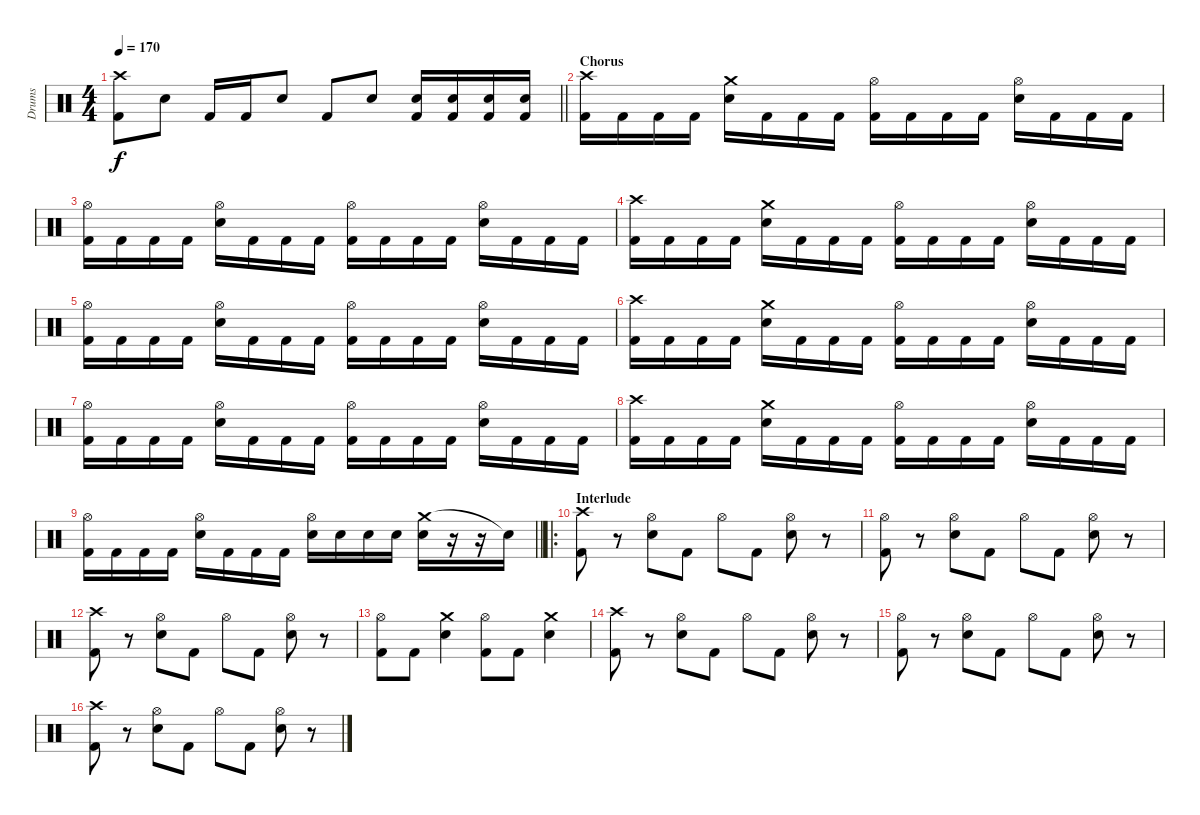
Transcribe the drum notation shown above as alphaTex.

\track ("Drums" "Drums") {instrument percussion}
\staff {score}
\articulation defaults
\ts (4 4)
\tempo 170
\clef neutral
\barLineRight lightlight
\ks c
("Crash high (hit)" "Kick (hit) 2").8{dy f} "Snare (hit) 2".8 "Kick (hit) 2".16 "Kick (hit) 2".16 "Snare (hit) 2".8 "Kick (hit) 2".8 "Snare (hit) 2".8 ("Snare (hit) 2" "Kick (hit) 2").16 ("Snare (hit) 2" "Kick (hit) 2").16 ("Snare (hit) 2" "Kick (hit) 2").16 ("Snare (hit) 2" "Kick (hit) 2").16 |
\section ("" "Chorus")
("Crash high (hit)" "Kick (hit) 2").16 "Kick (hit) 2".16 "Kick (hit) 2".16 "Kick (hit) 2".16 ("Crash medium (hit)" "Snare (hit) 2").16 "Kick (hit) 2".16 "Kick (hit) 2".16 "Kick (hit) 2".16 ("Hi-Hat (open)" "Kick (hit) 2").16 "Kick (hit) 2".16 "Kick (hit) 2".16 "Kick (hit) 2".16 ("Hi-Hat (open)" "Snare (hit) 2").16 "Kick (hit) 2".16 "Kick (hit) 2".16 "Kick (hit) 2".16 |
("Hi-Hat (open)" "Kick (hit) 2").16 "Kick (hit) 2".16 "Kick (hit) 2".16 "Kick (hit) 2".16 ("Hi-Hat (open)" "Snare (hit) 2").16 "Kick (hit) 2".16 "Kick (hit) 2".16 "Kick (hit) 2".16 ("Hi-Hat (open)" "Kick (hit) 2").16 "Kick (hit) 2".16 "Kick (hit) 2".16 "Kick (hit) 2".16 ("Hi-Hat (open)" "Snare (hit) 2").16 "Kick (hit) 2".16 "Kick (hit) 2".16 "Kick (hit) 2".16 |
("Crash high (hit)" "Kick (hit) 2").16 "Kick (hit) 2".16 "Kick (hit) 2".16 "Kick (hit) 2".16 ("Crash medium (hit)" "Snare (hit) 2").16 "Kick (hit) 2".16 "Kick (hit) 2".16 "Kick (hit) 2".16 ("Hi-Hat (open)" "Kick (hit) 2").16 "Kick (hit) 2".16 "Kick (hit) 2".16 "Kick (hit) 2".16 ("Hi-Hat (open)" "Snare (hit) 2").16 "Kick (hit) 2".16 "Kick (hit) 2".16 "Kick (hit) 2".16 |
("Hi-Hat (open)" "Kick (hit) 2").16 "Kick (hit) 2".16 "Kick (hit) 2".16 "Kick (hit) 2".16 ("Hi-Hat (open)" "Snare (hit) 2").16 "Kick (hit) 2".16 "Kick (hit) 2".16 "Kick (hit) 2".16 ("Hi-Hat (open)" "Kick (hit) 2").16 "Kick (hit) 2".16 "Kick (hit) 2".16 "Kick (hit) 2".16 ("Hi-Hat (open)" "Snare (hit) 2").16 "Kick (hit) 2".16 "Kick (hit) 2".16 "Kick (hit) 2".16 |
("Crash high (hit)" "Kick (hit) 2").16 "Kick (hit) 2".16 "Kick (hit) 2".16 "Kick (hit) 2".16 ("Crash medium (hit)" "Snare (hit) 2").16 "Kick (hit) 2".16 "Kick (hit) 2".16 "Kick (hit) 2".16 ("Hi-Hat (open)" "Kick (hit) 2").16 "Kick (hit) 2".16 "Kick (hit) 2".16 "Kick (hit) 2".16 ("Hi-Hat (open)" "Snare (hit) 2").16 "Kick (hit) 2".16 "Kick (hit) 2".16 "Kick (hit) 2".16 |
("Hi-Hat (open)" "Kick (hit) 2").16 "Kick (hit) 2".16 "Kick (hit) 2".16 "Kick (hit) 2".16 ("Hi-Hat (open)" "Snare (hit) 2").16 "Kick (hit) 2".16 "Kick (hit) 2".16 "Kick (hit) 2".16 ("Hi-Hat (open)" "Kick (hit) 2").16 "Kick (hit) 2".16 "Kick (hit) 2".16 "Kick (hit) 2".16 ("Hi-Hat (open)" "Snare (hit) 2").16 "Kick (hit) 2".16 "Kick (hit) 2".16 "Kick (hit) 2".16 |
("Crash high (hit)" "Kick (hit) 2").16 "Kick (hit) 2".16 "Kick (hit) 2".16 "Kick (hit) 2".16 ("Crash medium (hit)" "Snare (hit) 2").16 "Kick (hit) 2".16 "Kick (hit) 2".16 "Kick (hit) 2".16 ("Hi-Hat (open)" "Kick (hit) 2").16 "Kick (hit) 2".16 "Kick (hit) 2".16 "Kick (hit) 2".16 ("Hi-Hat (open)" "Snare (hit) 2").16 "Kick (hit) 2".16 "Kick (hit) 2".16 "Kick (hit) 2".16 |
\barLineRight lightlight
("Hi-Hat (open)" "Kick (hit) 2").16 "Kick (hit) 2".16 "Kick (hit) 2".16 "Kick (hit) 2".16 ("Hi-Hat (open)" "Snare (hit) 2").16 "Kick (hit) 2".16 "Kick (hit) 2".16 "Kick (hit) 2".16 ("Hi-Hat (open)" "Snare (hit) 2").16 "Snare (hit) 2".16 "Snare (hit) 2".16 "Snare (hit) 2".16 ("Crash medium (hit)" "Snare (hit) 2").16 r.16 r.16 "Snare (hit) 2"{t}.16 |
\ro
\section ("" "Interlude")
("Crash high (hit)" "Kick (hit) 2").8 r.8 ("Hi-Hat (open)" "Snare (hit) 2").8 "Kick (hit) 2".8 "Hi-Hat (open)".8 "Kick (hit) 2".8 ("Hi-Hat (open)" "Snare (hit) 2").8 r.8 |
("Hi-Hat (open)" "Kick (hit) 2").8 r.8 ("Hi-Hat (open)" "Snare (hit) 2").8 "Kick (hit) 2".8 "Hi-Hat (open)".8 "Kick (hit) 2".8 ("Hi-Hat (open)" "Snare (hit) 2").8 r.8 |
("Crash high (hit)" "Kick (hit) 2").8 r.8 ("Hi-Hat (open)" "Snare (hit) 2").8 "Kick (hit) 2".8 "Hi-Hat (open)".8 "Kick (hit) 2".8 ("Hi-Hat (open)" "Snare (hit) 2").8 r.8 |
("Hi-Hat (open)" "Kick (hit) 2").8 "Kick (hit) 2".8 ("Crash medium (hit)" "Snare (hit) 2").4 ("Hi-Hat (open)" "Kick (hit) 2").8 "Kick (hit) 2".8 ("Crash medium (hit)" "Snare (hit) 2").4 |
("Crash high (hit)" "Kick (hit) 2").8 r.8 ("Hi-Hat (open)" "Snare (hit) 2").8 "Kick (hit) 2".8 "Hi-Hat (open)".8 "Kick (hit) 2".8 ("Hi-Hat (open)" "Snare (hit) 2").8 r.8 |
("Hi-Hat (open)" "Kick (hit) 2").8 r.8 ("Hi-Hat (open)" "Snare (hit) 2").8 "Kick (hit) 2".8 "Hi-Hat (open)".8 "Kick (hit) 2".8 ("Hi-Hat (open)" "Snare (hit) 2").8 r.8 |
("Crash high (hit)" "Kick (hit) 2").8 r.8 ("Hi-Hat (open)" "Snare (hit) 2").8 "Kick (hit) 2".8 "Hi-Hat (open)".8 "Kick (hit) 2".8 ("Hi-Hat (open)" "Snare (hit) 2").8 r.8
